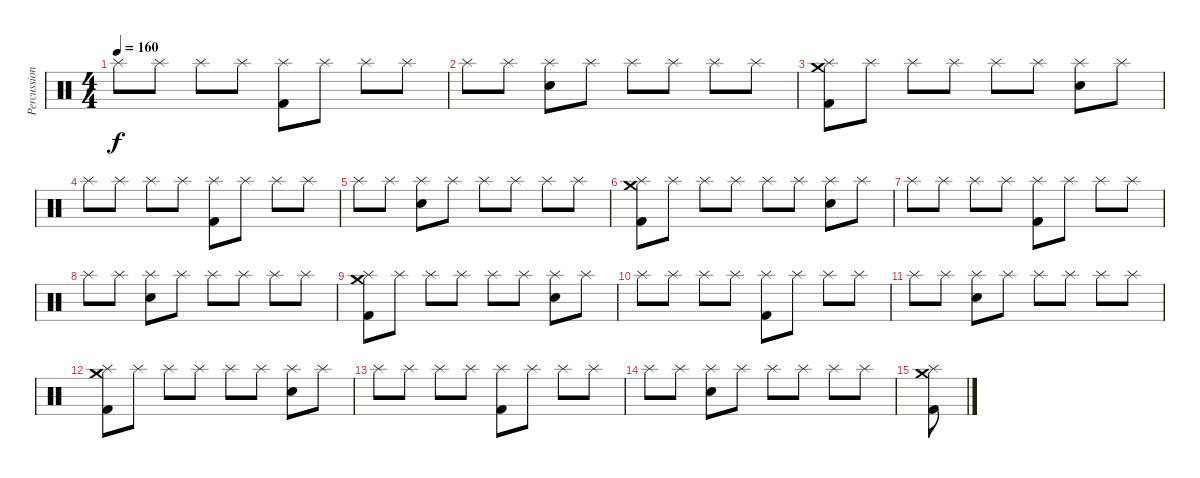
\track ("Percussions" "Percussion") {instrument percussion}
\staff {score}
\articulation defaults
\ts (4 4)
\tempo 160
\clef neutral
\ks c "Splash (hit)".8{dy f} "Splash (hit)".8 "Splash (hit)".8 "Splash (hit)".8
("Splash (hit)" "Kick (hit) 2").8 "Splash (hit)".8 "Splash (hit)".8 "Splash (hit)".8 |
"Splash (hit)".8 "Splash (hit)".8 ("Splash (hit)" "Snare (hit) 2").8 "Splash (hit)".8 "Splash (hit)".8 "Splash (hit)".8 "Splash (hit)".8 "Splash (hit)".8 |
("Crash medium (hit)" "Splash (hit)" "Kick (hit) 2").8 "Splash (hit)".8 "Splash (hit)".8 "Splash (hit)".8 "Splash (hit)".8 "Splash (hit)".8 ("Splash (hit)" "Snare (hit) 2").8 "Splash (hit)".8 |
"Splash (hit)".8 "Splash (hit)".8 "Splash (hit)".8 "Splash (hit)".8 ("Splash (hit)" "Kick (hit) 2").8 "Splash (hit)".8 "Splash (hit)".8 "Splash (hit)".8 |
"Splash (hit)".8 "Splash (hit)".8 ("Splash (hit)" "Snare (hit) 2").8 "Splash (hit)".8 "Splash (hit)".8 "Splash (hit)".8 "Splash (hit)".8 "Splash (hit)".8 |
("Crash medium (hit)" "Splash (hit)" "Kick (hit) 2").8 "Splash (hit)".8 "Splash (hit)".8 "Splash (hit)".8 "Splash (hit)".8 "Splash (hit)".8 ("Splash (hit)" "Snare (hit) 2").8 "Splash (hit)".8 |
"Splash (hit)".8 "Splash (hit)".8 "Splash (hit)".8 "Splash (hit)".8 ("Splash (hit)" "Kick (hit) 2").8 "Splash (hit)".8 "Splash (hit)".8 "Splash (hit)".8 |
"Splash (hit)".8 "Splash (hit)".8 ("Splash (hit)" "Snare (hit) 2").8 "Splash (hit)".8 "Splash (hit)".8 "Splash (hit)".8 "Splash (hit)".8 "Splash (hit)".8 |
("Crash medium (hit)" "Splash (hit)" "Kick (hit) 2").8 "Splash (hit)".8 "Splash (hit)".8 "Splash (hit)".8 "Splash (hit)".8 "Splash (hit)".8 ("Splash (hit)" "Snare (hit) 2").8 "Splash (hit)".8 |
"Splash (hit)".8 "Splash (hit)".8 "Splash (hit)".8 "Splash (hit)".8 ("Splash (hit)" "Kick (hit) 2").8 "Splash (hit)".8 "Splash (hit)".8 "Splash (hit)".8 |
"Splash (hit)".8 "Splash (hit)".8 ("Splash (hit)" "Snare (hit) 2").8 "Splash (hit)".8 "Splash (hit)".8 "Splash (hit)".8 "Splash (hit)".8 "Splash (hit)".8 |
("Crash medium (hit)" "Splash (hit)" "Kick (hit) 2").8 "Splash (hit)".8 "Splash (hit)".8 "Splash (hit)".8 "Splash (hit)".8 "Splash (hit)".8 ("Splash (hit)" "Snare (hit) 2").8 "Splash (hit)".8 |
"Splash (hit)".8 "Splash (hit)".8 "Splash (hit)".8 "Splash (hit)".8 ("Splash (hit)" "Kick (hit) 2").8 "Splash (hit)".8 "Splash (hit)".8 "Splash (hit)".8 |
"Splash (hit)".8 "Splash (hit)".8 ("Splash (hit)" "Snare (hit) 2").8 "Splash (hit)".8 "Splash (hit)".8 "Splash (hit)".8 "Splash (hit)".8 "Splash (hit)".8 |
("Splash (hit)" "Crash medium (hit)" "Kick (hit) 2").8
